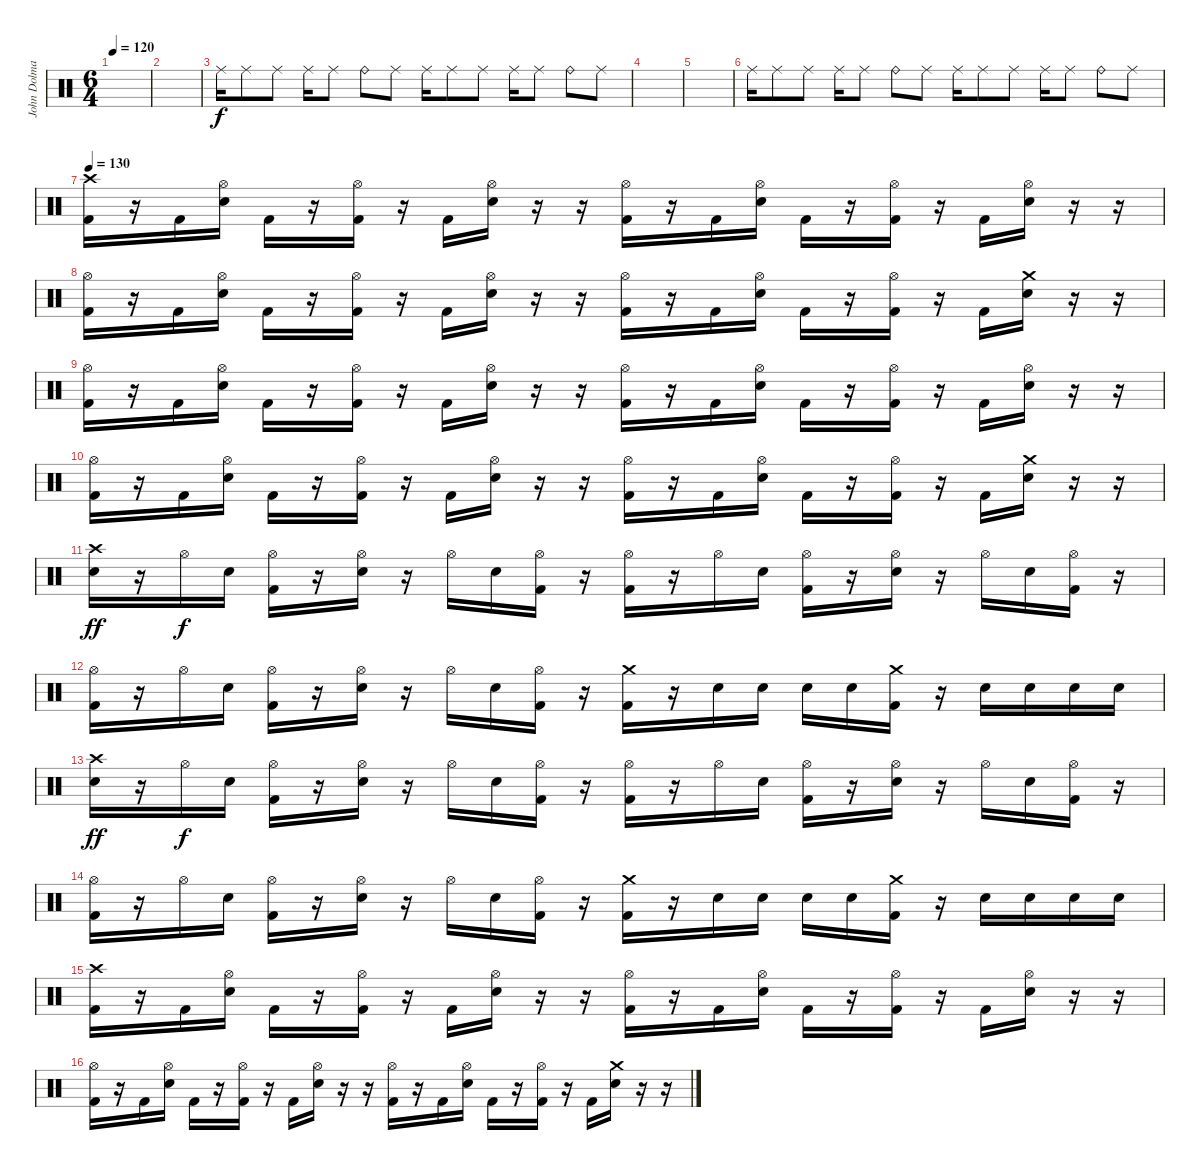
\track ("John Dolmayan" "John Dolma") {instrument percussion}
\staff {score}
\articulation defaults
\ts (6 4)
\tempo 120
\clef neutral
\ks c
|
|
"Ride (middle)".16 "Ride (middle)".8 "Ride (middle)".8 "Ride (middle)".16 "Ride (middle)".8 "Ride (bell)".8 "Ride (middle)".8 "Ride (middle)".16 "Ride (middle)".8 "Ride (middle)".8 "Ride (middle)".16 "Ride (middle)".8 "Ride (bell)".8 "Ride (middle)".8 |
|
|
"Ride (middle)".16 "Ride (middle)".8 "Ride (middle)".8 "Ride (middle)".16 "Ride (middle)".8 "Ride (bell)".8 "Ride (middle)".8 "Ride (middle)".16 "Ride (middle)".8 "Ride (middle)".8 "Ride (middle)".16 "Ride (middle)".8 "Ride (bell)".8 "Ride (middle)".8 |
\tempo 130
("Crash high (hit)" "Kick (hit) 2").16 r.16 "Kick (hit) 2".16 ("Hi-Hat (open)" "Electric Snare (hit)").16 "Kick (hit) 2".16 r.16 ("Hi-Hat (open)" "Kick (hit) 2").16 r.16 "Kick (hit) 2".16 ("Hi-Hat (open)" "Electric Snare (hit)").16 r.16 r.16 ("Hi-Hat (open)" "Kick (hit) 2").16 r.16 "Kick (hit) 2".16 ("Hi-Hat (open)" "Electric Snare (hit)").16 "Kick (hit) 2".16 r.16 ("Hi-Hat (open)" "Kick (hit) 2").16 r.16 "Kick (hit) 2".16 ("Hi-Hat (open)" "Electric Snare (hit)").16 r.16 r.16 |
("Hi-Hat (open)" "Kick (hit) 2").16 r.16 "Kick (hit) 2".16 ("Hi-Hat (open)" "Electric Snare (hit)").16 "Kick (hit) 2".16 r.16 ("Hi-Hat (open)" "Kick (hit) 2").16 r.16 "Kick (hit) 2".16 ("Hi-Hat (open)" "Electric Snare (hit)").16 r.16 r.16 ("Hi-Hat (open)" "Kick (hit) 2").16 r.16 "Kick (hit) 2".16 ("Hi-Hat (open)" "Electric Snare (hit)").16 "Kick (hit) 2".16 r.16 ("Hi-Hat (open)" "Kick (hit) 2").16 r.16 "Kick (hit) 2".16 ("Crash medium (hit)" "Electric Snare (hit)").16 r.16 r.16 |
("Hi-Hat (open)" "Kick (hit) 2").16 r.16 "Kick (hit) 2".16 ("Hi-Hat (open)" "Electric Snare (hit)").16 "Kick (hit) 2".16 r.16 ("Hi-Hat (open)" "Kick (hit) 2").16 r.16 "Kick (hit) 2".16 ("Hi-Hat (open)" "Electric Snare (hit)").16 r.16 r.16 ("Hi-Hat (open)" "Kick (hit) 2").16 r.16 "Kick (hit) 2".16 ("Hi-Hat (open)" "Electric Snare (hit)").16 "Kick (hit) 2".16 r.16 ("Hi-Hat (open)" "Kick (hit) 2").16 r.16 "Kick (hit) 2".16 ("Hi-Hat (open)" "Electric Snare (hit)").16 r.16 r.16 |
("Hi-Hat (open)" "Kick (hit) 2").16 r.16 "Kick (hit) 2".16 ("Hi-Hat (open)" "Electric Snare (hit)").16 "Kick (hit) 2".16 r.16 ("Hi-Hat (open)" "Kick (hit) 2").16 r.16 "Kick (hit) 2".16 ("Hi-Hat (open)" "Electric Snare (hit)").16 r.16 r.16 ("Hi-Hat (open)" "Kick (hit) 2").16 r.16 "Kick (hit) 2".16 ("Hi-Hat (open)" "Electric Snare (hit)").16 "Kick (hit) 2".16 r.16 ("Hi-Hat (open)" "Kick (hit) 2").16 r.16 "Kick (hit) 2".16 ("Crash medium (hit)" "Electric Snare (hit)").16 r.16 r.16 |
("Crash high (hit)" "Electric Snare (hit)").16{dy ff} r.16 "Hi-Hat (open)".16{dy f} "Electric Snare (hit)".16 ("Hi-Hat (open)" "Kick (hit) 2").16 r.16 ("Hi-Hat (open)" "Electric Snare (hit)").16 r.16 "Hi-Hat (open)".16 "Electric Snare (hit)".16 ("Hi-Hat (open)" "Kick (hit) 2").16 r.16 ("Hi-Hat (open)" "Kick (hit) 2").16 r.16 "Hi-Hat (open)".16 "Electric Snare (hit)".16 ("Hi-Hat (open)" "Kick (hit) 2").16 r.16 ("Hi-Hat (open)" "Electric Snare (hit)").16 r.16 "Hi-Hat (open)".16 "Electric Snare (hit)".16 ("Hi-Hat (open)" "Kick (hit) 2").16 r.16 |
("Hi-Hat (open)" "Kick (hit) 2").16 r.16 "Hi-Hat (open)".16 "Electric Snare (hit)".16 ("Hi-Hat (open)" "Kick (hit) 2").16 r.16 ("Hi-Hat (open)" "Electric Snare (hit)").16 r.16 "Hi-Hat (open)".16 "Electric Snare (hit)".16 ("Hi-Hat (open)" "Kick (hit) 2").16 r.16 ("Crash medium (hit)" "Kick (hit) 2").16 r.16 "Electric Snare (hit)".16 "Electric Snare (hit)".16 "Electric Snare (hit)".16 "Electric Snare (hit)".16 ("Crash medium (hit)" "Kick (hit) 2").16 r.16 "Electric Snare (hit)".16 "Electric Snare (hit)".16 "Electric Snare (hit)".16 "Electric Snare (hit)".16 |
("Crash high (hit)" "Electric Snare (hit)").16{dy ff} r.16 "Hi-Hat (open)".16{dy f} "Electric Snare (hit)".16 ("Hi-Hat (open)" "Kick (hit) 2").16 r.16 ("Hi-Hat (open)" "Electric Snare (hit)").16 r.16 "Hi-Hat (open)".16 "Electric Snare (hit)".16 ("Hi-Hat (open)" "Kick (hit) 2").16 r.16 ("Hi-Hat (open)" "Kick (hit) 2").16 r.16 "Hi-Hat (open)".16 "Electric Snare (hit)".16 ("Hi-Hat (open)" "Kick (hit) 2").16 r.16 ("Hi-Hat (open)" "Electric Snare (hit)").16 r.16 "Hi-Hat (open)".16 "Electric Snare (hit)".16 ("Hi-Hat (open)" "Kick (hit) 2").16 r.16 |
("Hi-Hat (open)" "Kick (hit) 2").16 r.16 "Hi-Hat (open)".16 "Electric Snare (hit)".16 ("Hi-Hat (open)" "Kick (hit) 2").16 r.16 ("Hi-Hat (open)" "Electric Snare (hit)").16 r.16 "Hi-Hat (open)".16 "Electric Snare (hit)".16 ("Hi-Hat (open)" "Kick (hit) 2").16 r.16 ("Crash medium (hit)" "Kick (hit) 2").16 r.16 "Electric Snare (hit)".16 "Electric Snare (hit)".16 "Electric Snare (hit)".16 "Electric Snare (hit)".16 ("Crash medium (hit)" "Kick (hit) 2").16 r.16 "Electric Snare (hit)".16 "Electric Snare (hit)".16 "Electric Snare (hit)".16 "Electric Snare (hit)".16 |
("Crash high (hit)" "Kick (hit) 2").16 r.16 "Kick (hit) 2".16 ("Hi-Hat (open)" "Electric Snare (hit)").16 "Kick (hit) 2".16 r.16 ("Hi-Hat (open)" "Kick (hit) 2").16 r.16 "Kick (hit) 2".16 ("Hi-Hat (open)" "Electric Snare (hit)").16 r.16 r.16 ("Hi-Hat (open)" "Kick (hit) 2").16 r.16 "Kick (hit) 2".16 ("Hi-Hat (open)" "Electric Snare (hit)").16 "Kick (hit) 2".16 r.16 ("Hi-Hat (open)" "Kick (hit) 2").16 r.16 "Kick (hit) 2".16 ("Hi-Hat (open)" "Electric Snare (hit)").16 r.16 r.16 |
("Hi-Hat (open)" "Kick (hit) 2").16 r.16 "Kick (hit) 2".16 ("Hi-Hat (open)" "Electric Snare (hit)").16 "Kick (hit) 2".16 r.16 ("Hi-Hat (open)" "Kick (hit) 2").16 r.16 "Kick (hit) 2".16 ("Hi-Hat (open)" "Electric Snare (hit)").16 r.16 r.16 ("Hi-Hat (open)" "Kick (hit) 2").16 r.16 "Kick (hit) 2".16 ("Hi-Hat (open)" "Electric Snare (hit)").16 "Kick (hit) 2".16 r.16 ("Hi-Hat (open)" "Kick (hit) 2").16 r.16 "Kick (hit) 2".16 ("Crash medium (hit)" "Electric Snare (hit)").16 r.16 r.16
